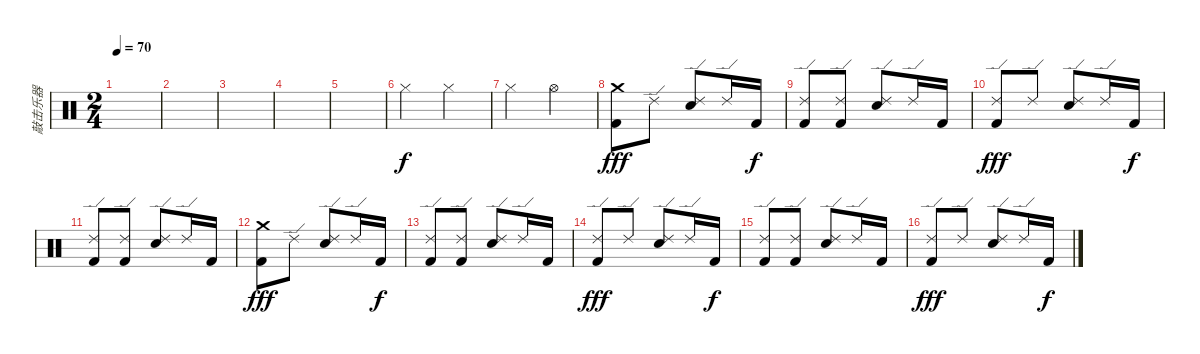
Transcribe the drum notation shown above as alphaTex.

\track ("敲击乐器" "敲击乐器") {instrument percussion}
\staff {score}
\articulation defaults
\ts (2 4)
\tempo 70
\clef neutral
\ks c
|
|
|
|
|
"Hi-Hat (closed)".4 "Hi-Hat (closed)".4 |
"Hi-Hat (closed)".4 "Hi-Hat (open)".4 |
("Crash medium (hit)" "Kick (hit) 2").8{dy fff} "Ride (edge) 2".8 ("Ride (edge) 2" "Snare (hit) 2").8 "Ride (edge) 2".16 "Kick (hit) 2".16{dy f} |
("Ride (edge) 2" "Kick (hit) 2").8 ("Ride (edge) 2" "Kick (hit) 2").8 ("Ride (edge) 2" "Snare (hit) 2").8 "Ride (edge) 2".16 "Kick (hit) 2".16 |
("Ride (edge) 2" "Kick (hit) 2").8{dy fff} "Ride (edge) 2".8 ("Ride (edge) 2" "Snare (hit) 2").8 "Ride (edge) 2".16 "Kick (hit) 2".16{dy f} |
("Ride (edge) 2" "Kick (hit) 2").8 ("Ride (edge) 2" "Kick (hit) 2").8 ("Ride (edge) 2" "Snare (hit) 2").8 "Ride (edge) 2".16 "Kick (hit) 2".16 |
("Crash medium (hit)" "Kick (hit) 2").8{dy fff} "Ride (edge) 2".8 ("Ride (edge) 2" "Snare (hit) 2").8 "Ride (edge) 2".16 "Kick (hit) 2".16{dy f} |
("Ride (edge) 2" "Kick (hit) 2").8 ("Ride (edge) 2" "Kick (hit) 2").8 ("Ride (edge) 2" "Snare (hit) 2").8 "Ride (edge) 2".16 "Kick (hit) 2".16 |
("Ride (edge) 2" "Kick (hit) 2").8{dy fff} "Ride (edge) 2".8 ("Ride (edge) 2" "Snare (hit) 2").8 "Ride (edge) 2".16 "Kick (hit) 2".16{dy f} |
("Ride (edge) 2" "Kick (hit) 2").8 ("Ride (edge) 2" "Kick (hit) 2").8 ("Ride (edge) 2" "Snare (hit) 2").8 "Ride (edge) 2".16 "Kick (hit) 2".16 |
("Ride (edge) 2" "Kick (hit) 2").8{dy fff} "Ride (edge) 2".8 ("Ride (edge) 2" "Snare (hit) 2").8 "Ride (edge) 2".16 "Kick (hit) 2".16{dy f}
